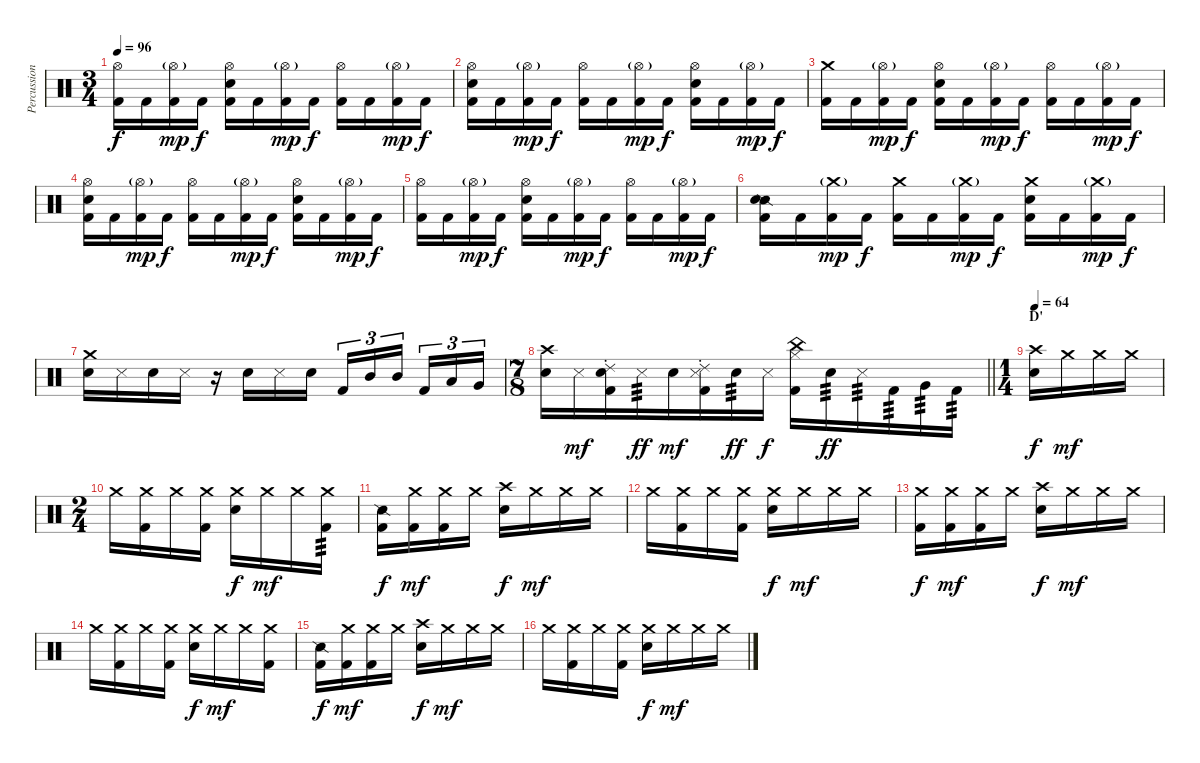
\track ("Percussion" "Percussion") {instrument percussion}
\staff {score}
\articulation defaults
\ts (3 4)
\tempo 96
\clef neutral
\ks c
("Hi-Hat (open)" "Kick (hit) 2").16{dy f} "Kick (hit) 2".16 ("Hi-Hat (open)"{g} "Kick (hit) 2").16{dy mp} "Kick (hit) 2".16{dy f} ("Hi-Hat (open)" "Snare (hit) 2" "Kick (hit) 2").16 "Kick (hit) 2".16 ("Hi-Hat (open)"{g} "Kick (hit) 2").16{dy mp} "Kick (hit) 2".16{dy f} ("Hi-Hat (open)" "Kick (hit) 2").16 "Kick (hit) 2".16 ("Hi-Hat (open)"{g} "Kick (hit) 2").16{dy mp} "Kick (hit) 2".16{dy f} |
("Hi-Hat (open)" "Snare (hit) 2" "Kick (hit) 2").16 "Kick (hit) 2".16 ("Hi-Hat (open)"{g} "Kick (hit) 2").16{dy mp} "Kick (hit) 2".16{dy f} ("Hi-Hat (open)" "Kick (hit) 2").16 "Kick (hit) 2".16 ("Hi-Hat (open)"{g} "Kick (hit) 2").16{dy mp} "Kick (hit) 2".16{dy f} ("Hi-Hat (open)" "Snare (hit) 2" "Kick (hit) 2").16 "Kick (hit) 2".16 ("Hi-Hat (open)"{g} "Kick (hit) 2").16{dy mp} "Kick (hit) 2".16{dy f} |
("Crash medium (hit)" "Kick (hit) 2").16 "Kick (hit) 2".16 ("Hi-Hat (open)"{g} "Kick (hit) 2").16{dy mp} "Kick (hit) 2".16{dy f} ("Hi-Hat (open)" "Snare (hit) 2" "Kick (hit) 2").16 "Kick (hit) 2".16 ("Hi-Hat (open)"{g} "Kick (hit) 2").16{dy mp} "Kick (hit) 2".16{dy f} ("Hi-Hat (open)" "Kick (hit) 2").16 "Kick (hit) 2".16 ("Hi-Hat (open)"{g} "Kick (hit) 2").16{dy mp} "Kick (hit) 2".16{dy f} |
("Hi-Hat (open)" "Snare (hit) 2" "Kick (hit) 2").16 "Kick (hit) 2".16 ("Hi-Hat (open)"{g} "Kick (hit) 2").16{dy mp} "Kick (hit) 2".16{dy f} ("Hi-Hat (open)" "Kick (hit) 2").16 "Kick (hit) 2".16 ("Hi-Hat (open)"{g} "Kick (hit) 2").16{dy mp} "Kick (hit) 2".16{dy f} ("Hi-Hat (open)" "Snare (hit) 2" "Kick (hit) 2").16 "Kick (hit) 2".16 ("Hi-Hat (open)"{g} "Kick (hit) 2").16{dy mp} "Kick (hit) 2".16{dy f} |
("Hi-Hat (open)" "Kick (hit) 2").16 "Kick (hit) 2".16 ("Hi-Hat (open)"{g} "Kick (hit) 2").16{dy mp} "Kick (hit) 2".16{dy f} ("Hi-Hat (open)" "Snare (hit) 2" "Kick (hit) 2").16 "Kick (hit) 2".16 ("Hi-Hat (open)"{g} "Kick (hit) 2").16{dy mp} "Kick (hit) 2".16{dy f} ("Hi-Hat (open)" "Kick (hit) 2").16 "Kick (hit) 2".16 ("Hi-Hat (open)"{g} "Kick (hit) 2").16{dy mp} "Kick (hit) 2".16{dy f} |
("Snare (side stick) 2" "Snare (hit) 2" "Kick (hit) 2").16 "Kick (hit) 2".16 ("Crash medium (hit)"{g} "Kick (hit) 2").16{dy mp} "Kick (hit) 2".16{dy f} ("Crash medium (hit)" "Kick (hit) 2").16 "Kick (hit) 2".16 ("Crash medium (hit)"{g} "Kick (hit) 2").16{dy mp} "Kick (hit) 2".16{dy f} ("Crash medium (hit)" "Snare (hit) 2" "Kick (hit) 2").16 "Kick (hit) 2".16 ("Crash medium (hit)"{g} "Kick (hit) 2").16{dy mp} "Kick (hit) 2".16{dy f} |
("Crash medium (hit)" "Snare (hit) 2").16 "Metronome (hit)".16 "Snare (hit) 2".16 "Metronome (hit)".16 r.16 "Snare (hit) 2".16 "Metronome (hit)".16 "Snare (hit) 2".16 "Kick (hit) 2".16{tu (3 2)} "Mid Tom (hit)".16{tu (3 2)} "Mid Tom (hit)".16{tu (3 2) beam splitsecondary} "Kick (hit) 2".16{tu (3 2)} "Low Tom (hit)".16{tu (3 2)} "Very Low Tom (hit)".16{tu (3 2)} |
\ts (7 8)
\barLineRight lightlight
("Crash high (hit)" "Snare (hit) 2").16 "Metronome (hit)".16{dy mf} ("Ride (choke) 2" "Snare (hit) 2" "Kick (hit) 2").16 "Metronome (hit)".16{tp 3 dy ff} "Snare (hit) 2".16{dy mf} ("Ride (choke) 2" "Metronome (hit)" "Kick (hit) 2").16 "Snare (hit) 2".16{tp 3 dy ff} "Metronome (hit)".16{dy f} ("Hi-Hat (closed)" "China (hit)" "Kick (hit) 2").16 "Snare (hit) 2".16{tp 3 dy ff} "Metronome (hit)".16{tp 3} "Kick (hit) 2".16{tp 3} "Very Low Tom (hit)".16{tp 3} "Kick (hit) 2".16{tp 3} |
\ts (1 4)
\section ("" "D'")
\tempo 64
("Crash high (hit)" "Snare (hit) 2").16{dy f} "Crash medium (hit)".16{dy mf} "Crash medium (hit)".16 "Crash medium (hit)".16 |
\ts (2 4)
"Crash medium (hit)".16 ("Crash medium (hit)" "Kick (hit) 2").16 "Crash medium (hit)".16 ("Crash medium (hit)" "Kick (hit) 2").16 ("Crash medium (hit)" "Snare (hit) 2").16{dy f} "Crash medium (hit)".16{dy mf} "Crash medium (hit)".16 ("Crash medium (hit)" "Kick (hit) 2").16{tp 3} |
("Snare (side stick) 2" "Kick (hit) 2").16{dy f} ("Crash medium (hit)" "Kick (hit) 2").16{dy mf} ("Crash medium (hit)" "Kick (hit) 2").16 "Crash medium (hit)".16 ("Crash high (hit)" "Snare (hit) 2").16{dy f} "Crash medium (hit)".16{dy mf} "Crash medium (hit)".16 "Crash medium (hit)".16 |
"Crash medium (hit)".16 ("Crash medium (hit)" "Kick (hit) 2").16 "Crash medium (hit)".16 ("Crash medium (hit)" "Kick (hit) 2").16 ("Crash medium (hit)" "Snare (hit) 2").16{dy f} "Crash medium (hit)".16{dy mf} "Crash medium (hit)".16 "Crash medium (hit)".16 |
("Crash medium (hit)" "Kick (hit) 2").16{dy f} ("Crash medium (hit)" "Kick (hit) 2").16{dy mf} ("Crash medium (hit)" "Kick (hit) 2").16 "Crash medium (hit)".16 ("Crash high (hit)" "Snare (hit) 2").16{dy f} "Crash medium (hit)".16{dy mf} "Crash medium (hit)".16 "Crash medium (hit)".16 |
"Crash medium (hit)".16 ("Crash medium (hit)" "Kick (hit) 2").16 "Crash medium (hit)".16 ("Crash medium (hit)" "Kick (hit) 2").16 ("Crash medium (hit)" "Snare (hit) 2").16{dy f} "Crash medium (hit)".16{dy mf} "Crash medium (hit)".16 ("Crash medium (hit)" "Kick (hit) 2").16 |
("Snare (side stick) 2" "Kick (hit) 2").16{dy f} ("Crash medium (hit)" "Kick (hit) 2").16{dy mf} ("Crash medium (hit)" "Kick (hit) 2").16 "Crash medium (hit)".16 ("Crash high (hit)" "Snare (hit) 2").16{dy f} "Crash medium (hit)".16{dy mf} "Crash medium (hit)".16 "Crash medium (hit)".16 |
"Crash medium (hit)".16 ("Crash medium (hit)" "Kick (hit) 2").16 "Crash medium (hit)".16 ("Crash medium (hit)" "Kick (hit) 2").16 ("Crash medium (hit)" "Snare (hit) 2").16{dy f} "Crash medium (hit)".16{dy mf} "Crash medium (hit)".16 "Crash medium (hit)".16
